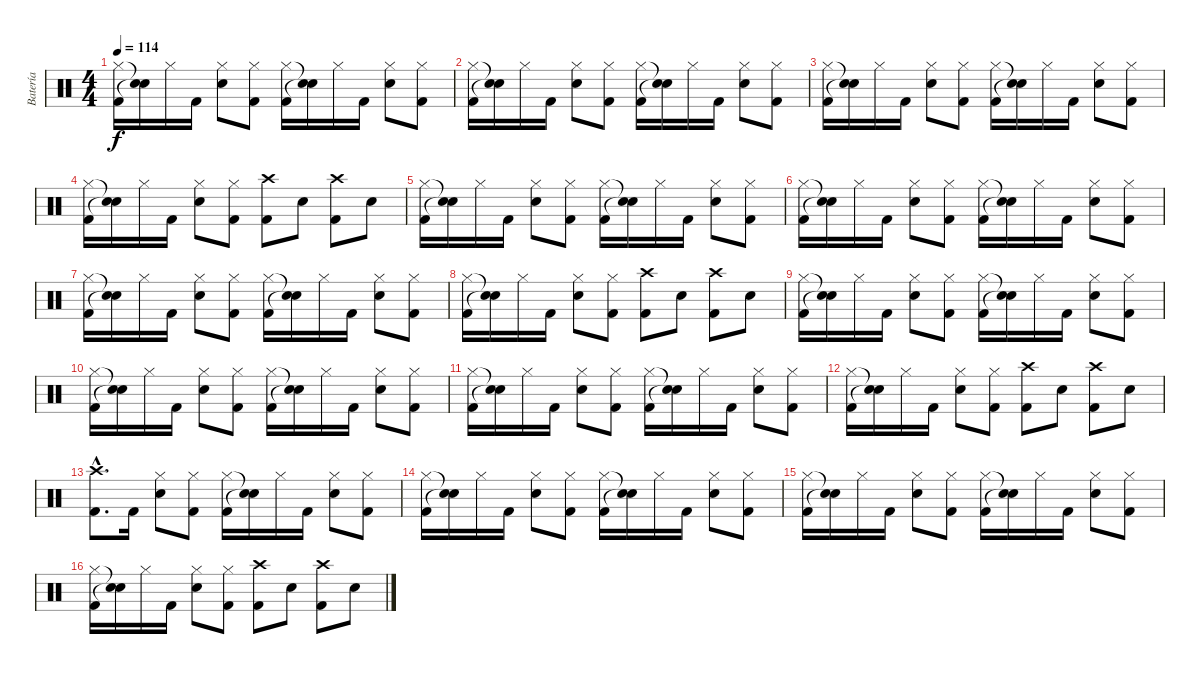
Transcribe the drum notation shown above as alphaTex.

\track ("Batería" "Batería") {instrument percussion}
\staff {score}
\articulation defaults
\ts (4 4)
\tempo 114
\clef neutral
\ks c
("Hi-Hat (closed)" "Kick (hit) 2").16{dy f} ("Snare (hit)"{t} "Snare (hit)"{t}).16 "Hi-Hat (closed)".16 "Kick (hit) 2".16 ("Hi-Hat (closed)" "Snare (hit) 2").8 ("Hi-Hat (closed)" "Kick (hit) 2").8 ("Hi-Hat (closed)" "Kick (hit) 2").16 ("Snare (hit)"{t} "Snare (hit)"{t}).16 "Hi-Hat (closed)".16 "Kick (hit) 2".16 ("Hi-Hat (closed)" "Snare (hit) 2").8 ("Hi-Hat (closed)" "Kick (hit) 2").8 |
("Hi-Hat (closed)" "Kick (hit) 2").16 ("Snare (hit)"{t} "Snare (hit)"{t}).16 "Hi-Hat (closed)".16 "Kick (hit) 2".16 ("Hi-Hat (closed)" "Snare (hit) 2").8 ("Hi-Hat (closed)" "Kick (hit) 2").8 ("Hi-Hat (closed)" "Kick (hit) 2").16 ("Snare (hit)"{t} "Snare (hit)"{t}).16 "Hi-Hat (closed)".16 "Kick (hit) 2".16 ("Hi-Hat (closed)" "Snare (hit) 2").8 ("Hi-Hat (closed)" "Kick (hit) 2").8 |
("Hi-Hat (closed)" "Kick (hit) 2").16 ("Snare (hit)"{t} "Snare (hit)"{t}).16 "Hi-Hat (closed)".16 "Kick (hit) 2".16 ("Hi-Hat (closed)" "Snare (hit) 2").8 ("Hi-Hat (closed)" "Kick (hit) 2").8 ("Hi-Hat (closed)" "Kick (hit) 2").16 ("Snare (hit)"{t} "Snare (hit)"{t}).16 "Hi-Hat (closed)".16 "Kick (hit) 2".16 ("Hi-Hat (closed)" "Snare (hit) 2").8 ("Hi-Hat (closed)" "Kick (hit) 2").8 |
("Hi-Hat (closed)" "Kick (hit) 2").16 ("Snare (hit)"{t} "Snare (hit)"{t}).16 "Hi-Hat (closed)".16 "Kick (hit) 2".16 ("Hi-Hat (closed)" "Snare (hit) 2").8 ("Hi-Hat (closed)" "Kick (hit) 2").8 ("Crash high (hit)" "Kick (hit) 2").8 "Snare (hit) 2".8 ("Crash high (hit)" "Kick (hit) 2").8 "Snare (hit) 2".8 |
("Hi-Hat (closed)" "Kick (hit) 2").16 ("Snare (hit)"{t} "Snare (hit)"{t}).16 "Hi-Hat (closed)".16 "Kick (hit) 2".16 ("Hi-Hat (closed)" "Snare (hit) 2").8 ("Hi-Hat (closed)" "Kick (hit) 2").8 ("Hi-Hat (closed)" "Kick (hit) 2").16 ("Snare (hit)"{t} "Snare (hit)"{t}).16 "Hi-Hat (closed)".16 "Kick (hit) 2".16 ("Hi-Hat (closed)" "Snare (hit) 2").8 ("Hi-Hat (closed)" "Kick (hit) 2").8 |
("Hi-Hat (closed)" "Kick (hit) 2").16 ("Snare (hit)"{t} "Snare (hit)"{t}).16 "Hi-Hat (closed)".16 "Kick (hit) 2".16 ("Hi-Hat (closed)" "Snare (hit) 2").8 ("Hi-Hat (closed)" "Kick (hit) 2").8 ("Hi-Hat (closed)" "Kick (hit) 2").16 ("Snare (hit)"{t} "Snare (hit)"{t}).16 "Hi-Hat (closed)".16 "Kick (hit) 2".16 ("Hi-Hat (closed)" "Snare (hit) 2").8 ("Hi-Hat (closed)" "Kick (hit) 2").8 |
("Hi-Hat (closed)" "Kick (hit) 2").16 ("Snare (hit)"{t} "Snare (hit)"{t}).16 "Hi-Hat (closed)".16 "Kick (hit) 2".16 ("Hi-Hat (closed)" "Snare (hit) 2").8 ("Hi-Hat (closed)" "Kick (hit) 2").8 ("Hi-Hat (closed)" "Kick (hit) 2").16 ("Snare (hit)"{t} "Snare (hit)"{t}).16 "Hi-Hat (closed)".16 "Kick (hit) 2".16 ("Hi-Hat (closed)" "Snare (hit) 2").8 ("Hi-Hat (closed)" "Kick (hit) 2").8 |
("Hi-Hat (closed)" "Kick (hit) 2").16 ("Snare (hit)"{t} "Snare (hit)"{t}).16 "Hi-Hat (closed)".16 "Kick (hit) 2".16 ("Hi-Hat (closed)" "Snare (hit) 2").8 ("Hi-Hat (closed)" "Kick (hit) 2").8 ("Crash high (hit)" "Kick (hit) 2").8 "Snare (hit) 2".8 ("Crash high (hit)" "Kick (hit) 2").8 "Snare (hit) 2".8 |
("Hi-Hat (closed)" "Kick (hit) 2").16 ("Snare (hit)"{t} "Snare (hit)"{t}).16 "Hi-Hat (closed)".16 "Kick (hit) 2".16 ("Hi-Hat (closed)" "Snare (hit) 2").8 ("Hi-Hat (closed)" "Kick (hit) 2").8 ("Hi-Hat (closed)" "Kick (hit) 2").16 ("Snare (hit)"{t} "Snare (hit)"{t}).16 "Hi-Hat (closed)".16 "Kick (hit) 2".16 ("Hi-Hat (closed)" "Snare (hit) 2").8 ("Hi-Hat (closed)" "Kick (hit) 2").8 |
("Hi-Hat (closed)" "Kick (hit) 2").16 ("Snare (hit)"{t} "Snare (hit)"{t}).16 "Hi-Hat (closed)".16 "Kick (hit) 2".16 ("Hi-Hat (closed)" "Snare (hit) 2").8 ("Hi-Hat (closed)" "Kick (hit) 2").8 ("Hi-Hat (closed)" "Kick (hit) 2").16 ("Snare (hit)"{t} "Snare (hit)"{t}).16 "Hi-Hat (closed)".16 "Kick (hit) 2".16 ("Hi-Hat (closed)" "Snare (hit) 2").8 ("Hi-Hat (closed)" "Kick (hit) 2").8 |
("Hi-Hat (closed)" "Kick (hit) 2").16 ("Snare (hit)"{t} "Snare (hit)"{t}).16 "Hi-Hat (closed)".16 "Kick (hit) 2".16 ("Hi-Hat (closed)" "Snare (hit) 2").8 ("Hi-Hat (closed)" "Kick (hit) 2").8 ("Hi-Hat (closed)" "Kick (hit) 2").16 ("Snare (hit)"{t} "Snare (hit)"{t}).16 "Hi-Hat (closed)".16 "Kick (hit) 2".16 ("Hi-Hat (closed)" "Snare (hit) 2").8 ("Hi-Hat (closed)" "Kick (hit) 2").8 |
("Hi-Hat (closed)" "Kick (hit) 2").16 ("Snare (hit)"{t} "Snare (hit)"{t}).16 "Hi-Hat (closed)".16 "Kick (hit) 2".16 ("Hi-Hat (closed)" "Snare (hit) 2").8 ("Hi-Hat (closed)" "Kick (hit) 2").8 ("Crash high (hit)" "Kick (hit) 2").8 "Snare (hit) 2".8 ("Crash high (hit)" "Kick (hit) 2").8 "Snare (hit) 2".8 |
("Crash high (hit)"{hac} "Kick (hit) 2"{hac}).8{d} "Kick (hit) 2".16 ("Hi-Hat (closed)" "Snare (hit) 2").8 ("Hi-Hat (closed)" "Kick (hit) 2").8 ("Hi-Hat (closed)" "Kick (hit) 2").16 ("Snare (hit)"{t} "Snare (hit)"{t}).16 "Hi-Hat (closed)".16 "Kick (hit) 2".16 ("Hi-Hat (closed)" "Snare (hit) 2").8 ("Hi-Hat (closed)" "Kick (hit) 2").8 |
("Hi-Hat (closed)" "Kick (hit) 2").16 ("Snare (hit)"{t} "Snare (hit)"{t}).16 "Hi-Hat (closed)".16 "Kick (hit) 2".16 ("Hi-Hat (closed)" "Snare (hit) 2").8 ("Hi-Hat (closed)" "Kick (hit) 2").8 ("Hi-Hat (closed)" "Kick (hit) 2").16 ("Snare (hit)"{t} "Snare (hit)"{t}).16 "Hi-Hat (closed)".16 "Kick (hit) 2".16 ("Hi-Hat (closed)" "Snare (hit) 2").8 ("Hi-Hat (closed)" "Kick (hit) 2").8 |
("Hi-Hat (closed)" "Kick (hit) 2").16 ("Snare (hit)"{t} "Snare (hit)"{t}).16 "Hi-Hat (closed)".16 "Kick (hit) 2".16 ("Hi-Hat (closed)" "Snare (hit) 2").8 ("Hi-Hat (closed)" "Kick (hit) 2").8 ("Hi-Hat (closed)" "Kick (hit) 2").16 ("Snare (hit)"{t} "Snare (hit)"{t}).16 "Hi-Hat (closed)".16 "Kick (hit) 2".16 ("Hi-Hat (closed)" "Snare (hit) 2").8 ("Hi-Hat (closed)" "Kick (hit) 2").8 |
("Hi-Hat (closed)" "Kick (hit) 2").16 ("Snare (hit)"{t} "Snare (hit)"{t}).16 "Hi-Hat (closed)".16 "Kick (hit) 2".16 ("Hi-Hat (closed)" "Snare (hit) 2").8 ("Hi-Hat (closed)" "Kick (hit) 2").8 ("Crash high (hit)" "Kick (hit) 2").8 "Snare (hit) 2".8 ("Crash high (hit)" "Kick (hit) 2").8 "Snare (hit) 2".8
